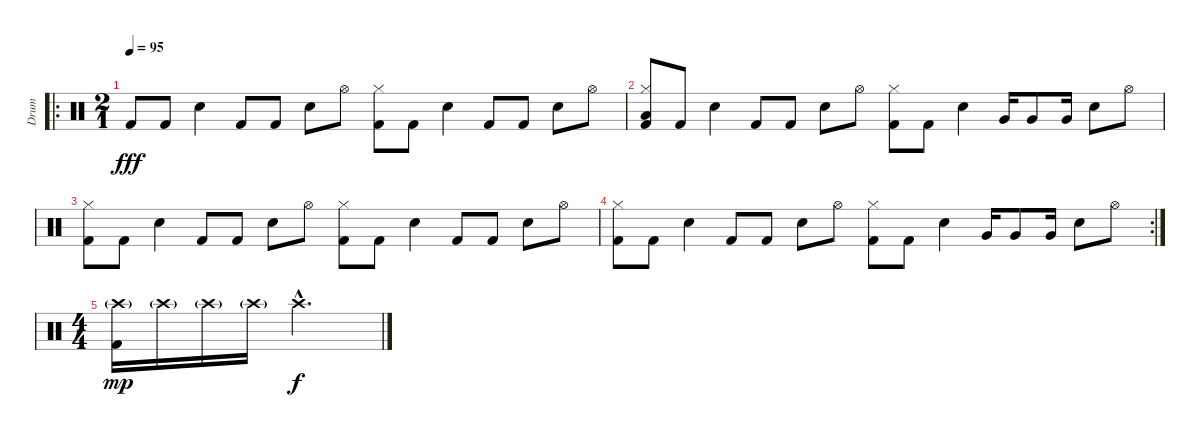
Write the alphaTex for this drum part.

\track ("Drum" "Drum") {instrument percussion}
\staff {score}
\articulation defaults
\ro
\ts (2 1)
\tempo 95
\clef neutral
\ks c "Kick (hit) 2".8{dy fff} "Kick (hit) 2".8 "Electric Snare (hit)".4 "Kick (hit) 2".8 "Kick (hit) 2".8 "Electric Snare (hit)".8 "Hi-Hat (open)".8
("Hi-Hat (closed)" "Kick (hit) 2").8 "Kick (hit) 2".8 "Electric Snare (hit)".4 "Kick (hit) 2".8 "Kick (hit) 2".8 "Electric Snare (hit)".8 "Hi-Hat (open)".8 |
("Hi-Hat (closed)" "Low Floor Tom (hit)" "Kick (hit) 2").8 "Kick (hit) 2".8 "Electric Snare (hit)".4 "Kick (hit) 2".8 "Kick (hit) 2".8 "Electric Snare (hit)".8 "Hi-Hat (open)".8 ("Hi-Hat (closed)" "Kick (hit) 2").8 "Kick (hit) 2".8 "Electric Snare (hit)".4 "Very Low Tom (hit)".16 "Very Low Tom (hit)".8 "Very Low Tom (hit)".16 "Electric Snare (hit)".8 "Hi-Hat (open)".8 |
("Hi-Hat (closed)" "Kick (hit) 2").8 "Kick (hit) 2".8 "Electric Snare (hit)".4 "Kick (hit) 2".8 "Kick (hit) 2".8 "Electric Snare (hit)".8 "Hi-Hat (open)".8 ("Hi-Hat (closed)" "Kick (hit) 2").8 "Kick (hit) 2".8 "Electric Snare (hit)".4 "Kick (hit) 2".8 "Kick (hit) 2".8 "Electric Snare (hit)".8 "Hi-Hat (open)".8 |
\rc 2
("Hi-Hat (closed)" "Kick (hit) 2").8 "Kick (hit) 2".8 "Electric Snare (hit)".4 "Kick (hit) 2".8 "Kick (hit) 2".8 "Electric Snare (hit)".8 "Hi-Hat (open)".8 ("Hi-Hat (closed)" "Kick (hit) 2").8 "Kick (hit) 2".8 "Electric Snare (hit)".4 "Very Low Tom (hit)".16 "Very Low Tom (hit)".8 "Very Low Tom (hit)".16 "Electric Snare (hit)".8 "Hi-Hat (open)".8 |
\ts (4 4)
("Crash high (hit)"{g} "Kick (hit) 2").16{dy mp} "Crash high (hit)"{g}.16 "Crash high (hit)"{g}.16 "Crash high (hit)"{g}.16 "Crash high (hit)"{hac}.2{d dy f}
